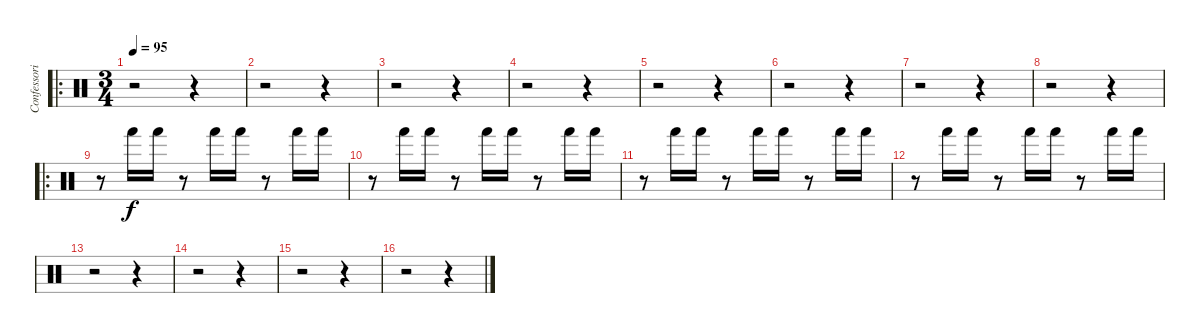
\track ("Confessori" "Confessori") {instrument percussion}
\staff {score}
\articulation defaults
\ro
\ts (3 4)
\tempo 95
\clef neutral
\ks c
r.2{dy f} r.4 |
r.2 r.4 |
r.2 r.4 |
r.2 r.4 |
r.2 r.4 |
r.2 r.4 |
r.2 r.4 |
r.2 r.4 |
\ro
r.8 "Hand (hit)".16 "Hand (hit)".16 r.8 "Hand (hit)".16 "Hand (hit)".16 r.8 "Hand (hit)".16 "Hand (hit)".16 |
r.8 "Hand (hit)".16 "Hand (hit)".16 r.8 "Hand (hit)".16 "Hand (hit)".16 r.8 "Hand (hit)".16 "Hand (hit)".16 |
r.8 "Hand (hit)".16 "Hand (hit)".16 r.8 "Hand (hit)".16 "Hand (hit)".16 r.8 "Hand (hit)".16 "Hand (hit)".16 |
r.8 "Hand (hit)".16 "Hand (hit)".16 r.8 "Hand (hit)".16 "Hand (hit)".16 r.8 "Hand (hit)".16 "Hand (hit)".16 |
r.2 r.4 |
r.2 r.4 |
r.2 r.4 |
r.2 r.4
